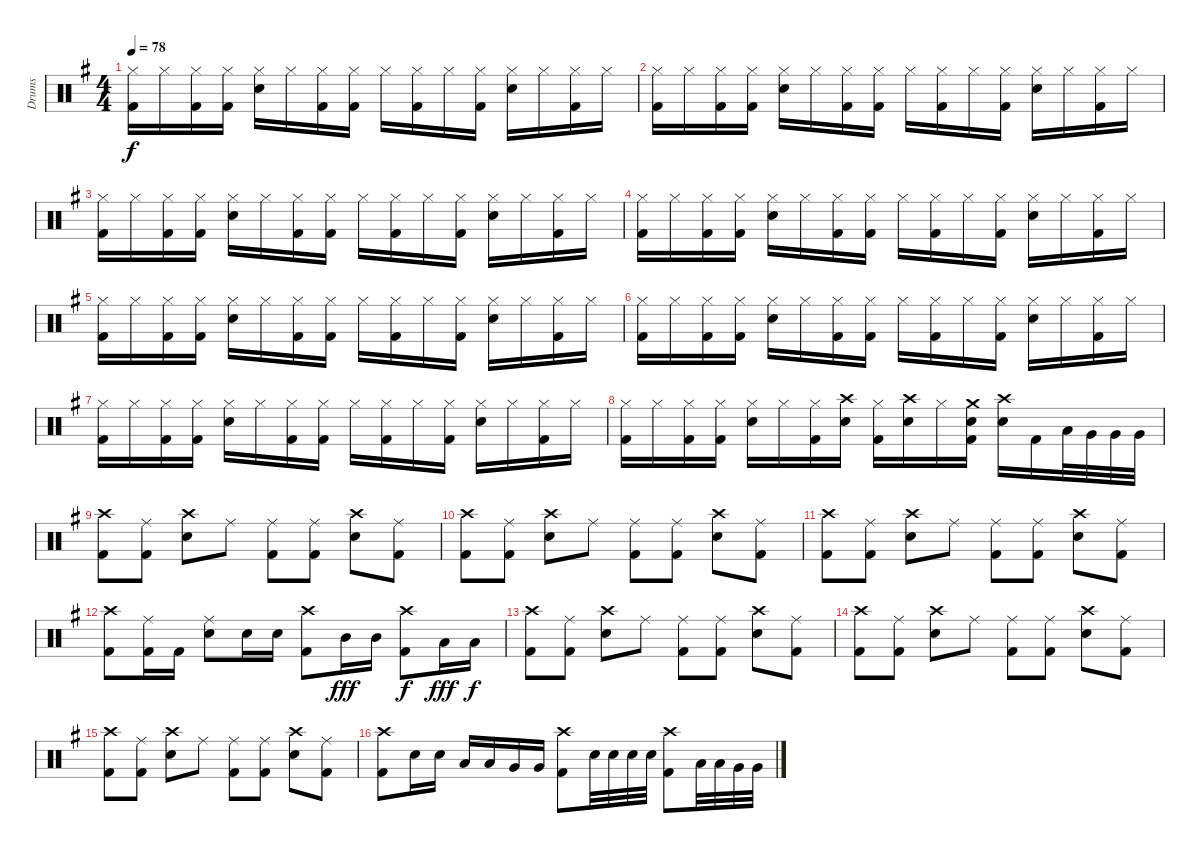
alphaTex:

\track ("Drums" "Drums") {instrument percussion}
\staff {score}
\articulation defaults
\ts (4 4)
\tempo 78
\clef neutral
\ks g
("Hi-Hat (closed)" "Kick (hit) 2").16{dy f} "Hi-Hat (closed)".16 ("Hi-Hat (closed)" "Kick (hit) 2").16 ("Hi-Hat (closed)" "Kick (hit) 2").16 ("Hi-Hat (closed)" "Snare (hit) 2").16 "Hi-Hat (closed)".16 ("Hi-Hat (closed)" "Kick (hit) 2").16 ("Hi-Hat (closed)" "Kick (hit) 2").16 "Hi-Hat (closed)".16 ("Hi-Hat (closed)" "Kick (hit) 2").16 "Hi-Hat (closed)".16 ("Hi-Hat (closed)" "Kick (hit) 2").16 ("Hi-Hat (closed)" "Snare (hit) 2").16 "Hi-Hat (closed)".16 ("Hi-Hat (closed)" "Kick (hit) 2").16 "Hi-Hat (closed)".16 |
("Hi-Hat (closed)" "Kick (hit) 2").16 "Hi-Hat (closed)".16 ("Hi-Hat (closed)" "Kick (hit) 2").16 ("Hi-Hat (closed)" "Kick (hit) 2").16 ("Hi-Hat (closed)" "Snare (hit) 2").16 "Hi-Hat (closed)".16 ("Hi-Hat (closed)" "Kick (hit) 2").16 ("Hi-Hat (closed)" "Kick (hit) 2").16 "Hi-Hat (closed)".16 ("Hi-Hat (closed)" "Kick (hit) 2").16 "Hi-Hat (closed)".16 ("Hi-Hat (closed)" "Kick (hit) 2").16 ("Hi-Hat (closed)" "Snare (hit) 2").16 "Hi-Hat (closed)".16 ("Hi-Hat (closed)" "Kick (hit) 2").16 "Hi-Hat (closed)".16 |
("Hi-Hat (closed)" "Kick (hit) 2").16 "Hi-Hat (closed)".16 ("Hi-Hat (closed)" "Kick (hit) 2").16 ("Hi-Hat (closed)" "Kick (hit) 2").16 ("Hi-Hat (closed)" "Snare (hit) 2").16 "Hi-Hat (closed)".16 ("Hi-Hat (closed)" "Kick (hit) 2").16 ("Hi-Hat (closed)" "Kick (hit) 2").16 "Hi-Hat (closed)".16 ("Hi-Hat (closed)" "Kick (hit) 2").16 "Hi-Hat (closed)".16 ("Hi-Hat (closed)" "Kick (hit) 2").16 ("Hi-Hat (closed)" "Snare (hit) 2").16 "Hi-Hat (closed)".16 ("Hi-Hat (closed)" "Kick (hit) 2").16 "Hi-Hat (closed)".16 |
("Hi-Hat (closed)" "Kick (hit) 2").16 "Hi-Hat (closed)".16 ("Hi-Hat (closed)" "Kick (hit) 2").16 ("Hi-Hat (closed)" "Kick (hit) 2").16 ("Hi-Hat (closed)" "Snare (hit) 2").16 "Hi-Hat (closed)".16 ("Hi-Hat (closed)" "Kick (hit) 2").16 ("Hi-Hat (closed)" "Kick (hit) 2").16 "Hi-Hat (closed)".16 ("Hi-Hat (closed)" "Kick (hit) 2").16 "Hi-Hat (closed)".16 ("Hi-Hat (closed)" "Kick (hit) 2").16 ("Hi-Hat (closed)" "Snare (hit) 2").16 "Hi-Hat (closed)".16 ("Hi-Hat (closed)" "Kick (hit) 2").16 "Hi-Hat (closed)".16 |
("Hi-Hat (closed)" "Kick (hit) 2").16 "Hi-Hat (closed)".16 ("Hi-Hat (closed)" "Kick (hit) 2").16 ("Hi-Hat (closed)" "Kick (hit) 2").16 ("Hi-Hat (closed)" "Snare (hit) 2").16 "Hi-Hat (closed)".16 ("Hi-Hat (closed)" "Kick (hit) 2").16 ("Hi-Hat (closed)" "Kick (hit) 2").16 "Hi-Hat (closed)".16 ("Hi-Hat (closed)" "Kick (hit) 2").16 "Hi-Hat (closed)".16 ("Hi-Hat (closed)" "Kick (hit) 2").16 ("Hi-Hat (closed)" "Snare (hit) 2").16 "Hi-Hat (closed)".16 ("Hi-Hat (closed)" "Kick (hit) 2").16 "Hi-Hat (closed)".16 |
("Hi-Hat (closed)" "Kick (hit) 2").16 "Hi-Hat (closed)".16 ("Hi-Hat (closed)" "Kick (hit) 2").16 ("Hi-Hat (closed)" "Kick (hit) 2").16 ("Hi-Hat (closed)" "Snare (hit) 2").16 "Hi-Hat (closed)".16 ("Hi-Hat (closed)" "Kick (hit) 2").16 ("Hi-Hat (closed)" "Kick (hit) 2").16 "Hi-Hat (closed)".16 ("Hi-Hat (closed)" "Kick (hit) 2").16 "Hi-Hat (closed)".16 ("Hi-Hat (closed)" "Kick (hit) 2").16 ("Hi-Hat (closed)" "Snare (hit) 2").16 "Hi-Hat (closed)".16 ("Hi-Hat (closed)" "Kick (hit) 2").16 "Hi-Hat (closed)".16 |
("Hi-Hat (closed)" "Kick (hit) 2").16 "Hi-Hat (closed)".16 ("Hi-Hat (closed)" "Kick (hit) 2").16 ("Hi-Hat (closed)" "Kick (hit) 2").16 ("Hi-Hat (closed)" "Snare (hit) 2").16 "Hi-Hat (closed)".16 ("Hi-Hat (closed)" "Kick (hit) 2").16 ("Hi-Hat (closed)" "Kick (hit) 2").16 "Hi-Hat (closed)".16 ("Hi-Hat (closed)" "Kick (hit) 2").16 "Hi-Hat (closed)".16 ("Hi-Hat (closed)" "Kick (hit) 2").16 ("Hi-Hat (closed)" "Snare (hit) 2").16 "Hi-Hat (closed)".16 ("Hi-Hat (closed)" "Kick (hit) 2").16 "Hi-Hat (closed)".16 |
("Hi-Hat (closed)" "Kick (hit) 2").16 "Hi-Hat (closed)".16 ("Hi-Hat (closed)" "Kick (hit) 2").16 ("Hi-Hat (closed)" "Kick (hit) 2").16 ("Hi-Hat (closed)" "Snare (hit) 2").16 "Hi-Hat (closed)".16 ("Hi-Hat (closed)" "Kick (hit) 2").16 ("Crash high (hit)" "Electric Snare (hit)").16 ("Hi-Hat (closed)" "Kick (hit) 2").16 ("Crash high (hit)" "Electric Snare (hit)").16 "Hi-Hat (closed)".16 ("Crash medium (hit)" "Electric Snare (hit)" "Kick (hit) 2").16 ("Crash high (hit)" "Electric Snare (hit)").16 "Kick (hit) 2".16 "Low Tom (hit)".32 "Very Low Tom (hit)".32 "Very Low Tom (hit)".32 "Very Low Tom (hit)".32 |
("Crash high (hit)" "Kick (hit) 2").8 ("Ride (middle)" "Kick (hit) 2").8 ("Crash high (hit)" "Electric Snare (hit)").8 "Ride (middle)".8 ("Ride (middle)" "Kick (hit) 2").8 ("Ride (middle)" "Kick (hit) 2").8 ("Crash high (hit)" "Electric Snare (hit)").8 ("Ride (middle)" "Kick (hit) 2").8 |
("Crash high (hit)" "Kick (hit) 2").8 ("Ride (middle)" "Kick (hit) 2").8 ("Crash high (hit)" "Electric Snare (hit)").8 "Ride (middle)".8 ("Ride (middle)" "Kick (hit) 2").8 ("Ride (middle)" "Kick (hit) 2").8 ("Crash high (hit)" "Electric Snare (hit)").8 ("Ride (middle)" "Kick (hit) 2").8 |
("Crash high (hit)" "Kick (hit) 2").8 ("Ride (middle)" "Kick (hit) 2").8 ("Crash high (hit)" "Electric Snare (hit)").8 "Ride (middle)".8 ("Ride (middle)" "Kick (hit) 2").8 ("Ride (middle)" "Kick (hit) 2").8 ("Crash high (hit)" "Electric Snare (hit)").8 ("Ride (middle)" "Kick (hit) 2").8 |
("Crash high (hit)" "Kick (hit) 2").8 ("Ride (middle)" "Kick (hit) 2").16 "Kick (hit) 2".16 ("Ride (middle)" "Snare (hit) 2").8 "Electric Snare (hit)".16 "Electric Snare (hit)".16 ("Crash high (hit)" "Kick (hit) 2").8 "Mid Tom (hit)".16{dy fff} "Mid Tom (hit)".16 ("Crash high (hit)" "Kick (hit) 2").8{dy f} "Low Tom (hit)".16{dy fff} "Low Tom (hit)".16{dy f} |
("Crash high (hit)" "Kick (hit) 2").8 ("Ride (middle)" "Kick (hit) 2").8 ("Crash high (hit)" "Electric Snare (hit)").8 "Ride (middle)".8 ("Ride (middle)" "Kick (hit) 2").8 ("Ride (middle)" "Kick (hit) 2").8 ("Crash high (hit)" "Electric Snare (hit)").8 ("Ride (middle)" "Kick (hit) 2").8 |
("Crash high (hit)" "Kick (hit) 2").8 ("Ride (middle)" "Kick (hit) 2").8 ("Crash high (hit)" "Electric Snare (hit)").8 "Ride (middle)".8 ("Ride (middle)" "Kick (hit) 2").8 ("Ride (middle)" "Kick (hit) 2").8 ("Crash high (hit)" "Electric Snare (hit)").8 ("Ride (middle)" "Kick (hit) 2").8 |
("Crash high (hit)" "Kick (hit) 2").8 ("Ride (middle)" "Kick (hit) 2").8 ("Crash high (hit)" "Electric Snare (hit)").8 "Ride (middle)".8 ("Ride (middle)" "Kick (hit) 2").8 ("Ride (middle)" "Kick (hit) 2").8 ("Crash high (hit)" "Electric Snare (hit)").8 ("Ride (middle)" "Kick (hit) 2").8 |
("Crash high (hit)" "Kick (hit) 2").8 "Snare (hit) 2".16 "Snare (hit) 2".16 "Low Tom (hit)".16 "Low Tom (hit)".16 "Very Low Tom (hit)".16 "Very Low Tom (hit)".16 ("Crash high (hit)" "Kick (hit) 2").8 "Electric Snare (hit)".32 "Electric Snare (hit)".32 "Electric Snare (hit)".32 "Electric Snare (hit)".32 ("Crash high (hit)" "Kick (hit) 2").8 "Low Tom (hit)".32 "Low Tom (hit)".32 "Very Low Tom (hit)".32 "Very Low Tom (hit)".32
